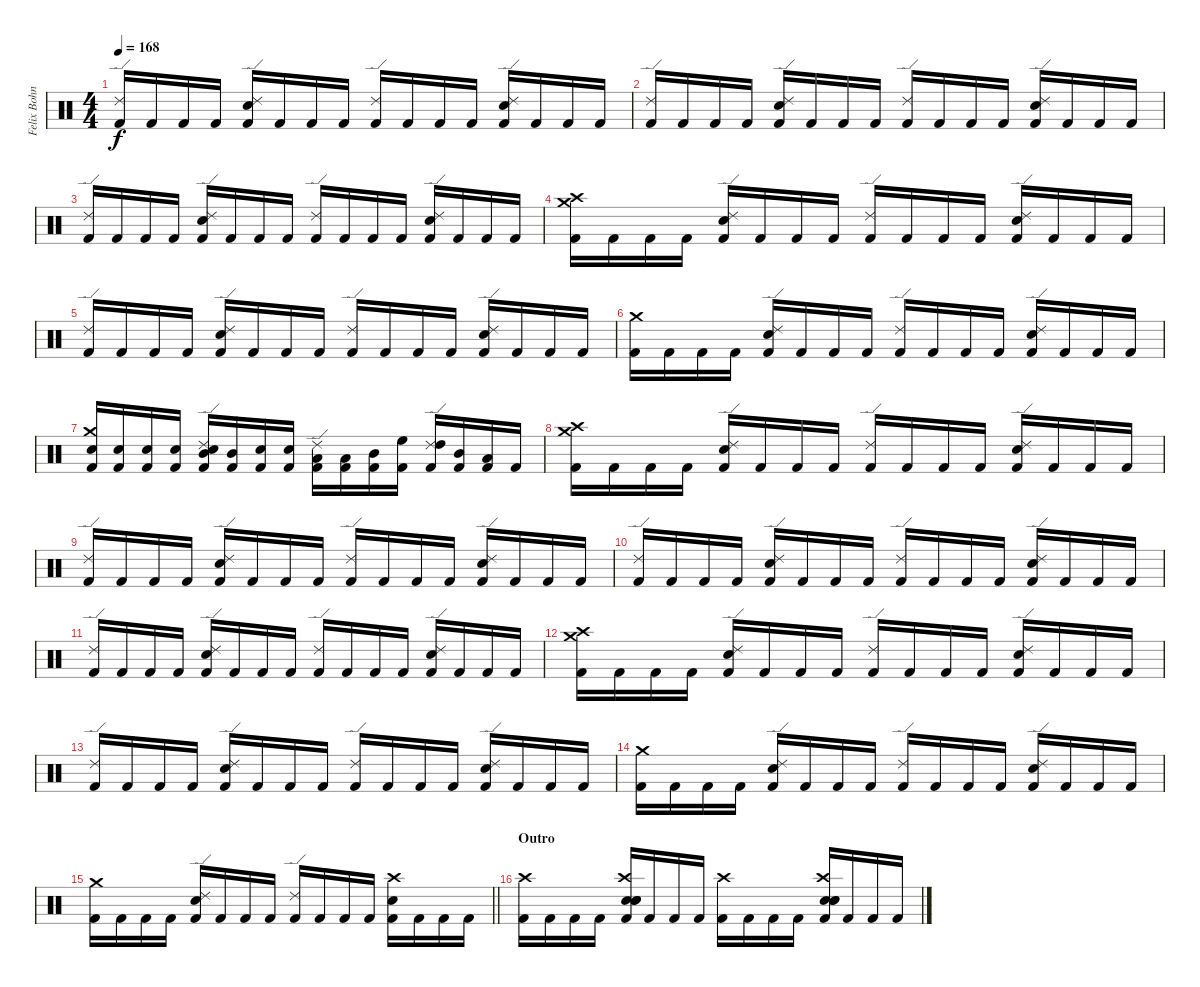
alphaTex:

\track ("Felix Bohnke" "Felix Bohn") {instrument percussion}
\staff {score}
\articulation defaults
\ts (4 4)
\tempo 168
\clef neutral
\ks c
("Ride (edge) 2" "Kick (hit) 2").16{dy f} "Kick (hit) 2".16 "Kick (hit) 2".16 "Kick (hit) 2".16 ("Ride (edge) 2" "Snare (hit) 2" "Kick (hit) 2").16 "Kick (hit) 2".16 "Kick (hit) 2".16 "Kick (hit) 2".16 ("Ride (edge) 2" "Kick (hit) 2").16 "Kick (hit) 2".16 "Kick (hit) 2".16 "Kick (hit) 2".16 ("Ride (edge) 2" "Snare (hit) 2" "Kick (hit) 2").16 "Kick (hit) 2".16 "Kick (hit) 2".16 "Kick (hit) 2".16 |
("Ride (edge) 2" "Kick (hit) 2").16 "Kick (hit) 2".16 "Kick (hit) 2".16 "Kick (hit) 2".16 ("Ride (edge) 2" "Snare (hit) 2" "Kick (hit) 2").16 "Kick (hit) 2".16 "Kick (hit) 2".16 "Kick (hit) 2".16 ("Ride (edge) 2" "Kick (hit) 2").16 "Kick (hit) 2".16 "Kick (hit) 2".16 "Kick (hit) 2".16 ("Ride (edge) 2" "Snare (hit) 2" "Kick (hit) 2").16 "Kick (hit) 2".16 "Kick (hit) 2".16 "Kick (hit) 2".16 |
("Ride (edge) 2" "Kick (hit) 2").16 "Kick (hit) 2".16 "Kick (hit) 2".16 "Kick (hit) 2".16 ("Ride (edge) 2" "Snare (hit) 2" "Kick (hit) 2").16 "Kick (hit) 2".16 "Kick (hit) 2".16 "Kick (hit) 2".16 ("Ride (edge) 2" "Kick (hit) 2").16 "Kick (hit) 2".16 "Kick (hit) 2".16 "Kick (hit) 2".16 ("Ride (edge) 2" "Snare (hit) 2" "Kick (hit) 2").16 "Kick (hit) 2".16 "Kick (hit) 2".16 "Kick (hit) 2".16 |
("Crash high (hit)" "Crash medium (hit)" "Kick (hit) 2").16 "Kick (hit) 2".16 "Kick (hit) 2".16 "Kick (hit) 2".16 ("Ride (edge) 2" "Snare (hit) 2" "Kick (hit) 2").16 "Kick (hit) 2".16 "Kick (hit) 2".16 "Kick (hit) 2".16 ("Ride (edge) 2" "Kick (hit) 2").16 "Kick (hit) 2".16 "Kick (hit) 2".16 "Kick (hit) 2".16 ("Ride (edge) 2" "Snare (hit) 2" "Kick (hit) 2").16 "Kick (hit) 2".16 "Kick (hit) 2".16 "Kick (hit) 2".16 |
("Ride (edge) 2" "Kick (hit) 2").16 "Kick (hit) 2".16 "Kick (hit) 2".16 "Kick (hit) 2".16 ("Ride (edge) 2" "Snare (hit) 2" "Kick (hit) 2").16 "Kick (hit) 2".16 "Kick (hit) 2".16 "Kick (hit) 2".16 ("Ride (edge) 2" "Kick (hit) 2").16 "Kick (hit) 2".16 "Kick (hit) 2".16 "Kick (hit) 2".16 ("Ride (edge) 2" "Snare (hit) 2" "Kick (hit) 2").16 "Kick (hit) 2".16 "Kick (hit) 2".16 "Kick (hit) 2".16 |
("Crash medium (hit)" "Kick (hit) 2").16 "Kick (hit) 2".16 "Kick (hit) 2".16 "Kick (hit) 2".16 ("Ride (edge) 2" "Snare (hit) 2" "Kick (hit) 2").16 "Kick (hit) 2".16 "Kick (hit) 2".16 "Kick (hit) 2".16 ("Ride (edge) 2" "Kick (hit) 2").16 "Kick (hit) 2".16 "Kick (hit) 2".16 "Kick (hit) 2".16 ("Ride (edge) 2" "Snare (hit) 2" "Kick (hit) 2").16 "Kick (hit) 2".16 "Kick (hit) 2".16 "Kick (hit) 2".16 |
("Crash medium (hit)" "Electric Snare (hit)" "Kick (hit) 2").16 ("Electric Snare (hit)" "Kick (hit) 2").16 ("Electric Snare (hit)" "Kick (hit) 2").16 ("Electric Snare (hit)" "Kick (hit) 2").16 ("Ride (edge) 2" "Snare (hit) 2" "Mid Tom (hit)" "Kick (hit) 2").16 ("Mid Tom (hit)" "Kick (hit) 2").16 ("Electric Snare (hit)" "Kick (hit) 2").16 ("Electric Snare (hit)" "Kick (hit) 2").16 ("Ride (edge) 2" "Low Tom (hit)" "Kick (hit) 2").16 ("Low Tom (hit)" "Kick (hit) 2").16 ("Mid Tom (hit)" "Kick (hit) 2").16 ("High Floor Tom (hit)" "Kick (hit) 2").16 ("Ride (edge) 2" "High Tom (hit)" "Kick (hit) 2").16 ("Mid Tom (hit)" "Kick (hit) 2").16 ("Low Tom (hit)" "Kick (hit) 2").16 "Kick (hit) 2".16 |
("Crash high (hit)" "Crash medium (hit)" "Kick (hit) 2").16 "Kick (hit) 2".16 "Kick (hit) 2".16 "Kick (hit) 2".16 ("Ride (edge) 2" "Snare (hit) 2" "Kick (hit) 2").16 "Kick (hit) 2".16 "Kick (hit) 2".16 "Kick (hit) 2".16 ("Ride (edge) 2" "Kick (hit) 2").16 "Kick (hit) 2".16 "Kick (hit) 2".16 "Kick (hit) 2".16 ("Ride (edge) 2" "Snare (hit) 2" "Kick (hit) 2").16 "Kick (hit) 2".16 "Kick (hit) 2".16 "Kick (hit) 2".16 |
("Ride (edge) 2" "Kick (hit) 2").16 "Kick (hit) 2".16 "Kick (hit) 2".16 "Kick (hit) 2".16 ("Ride (edge) 2" "Snare (hit) 2" "Kick (hit) 2").16 "Kick (hit) 2".16 "Kick (hit) 2".16 "Kick (hit) 2".16 ("Ride (edge) 2" "Kick (hit) 2").16 "Kick (hit) 2".16 "Kick (hit) 2".16 "Kick (hit) 2".16 ("Ride (edge) 2" "Snare (hit) 2" "Kick (hit) 2").16 "Kick (hit) 2".16 "Kick (hit) 2".16 "Kick (hit) 2".16 |
("Ride (edge) 2" "Kick (hit) 2").16 "Kick (hit) 2".16 "Kick (hit) 2".16 "Kick (hit) 2".16 ("Ride (edge) 2" "Snare (hit) 2" "Kick (hit) 2").16 "Kick (hit) 2".16 "Kick (hit) 2".16 "Kick (hit) 2".16 ("Ride (edge) 2" "Kick (hit) 2").16 "Kick (hit) 2".16 "Kick (hit) 2".16 "Kick (hit) 2".16 ("Ride (edge) 2" "Snare (hit) 2" "Kick (hit) 2").16 "Kick (hit) 2".16 "Kick (hit) 2".16 "Kick (hit) 2".16 |
("Ride (edge) 2" "Kick (hit) 2").16 "Kick (hit) 2".16 "Kick (hit) 2".16 "Kick (hit) 2".16 ("Ride (edge) 2" "Snare (hit) 2" "Kick (hit) 2").16 "Kick (hit) 2".16 "Kick (hit) 2".16 "Kick (hit) 2".16 ("Ride (edge) 2" "Kick (hit) 2").16 "Kick (hit) 2".16 "Kick (hit) 2".16 "Kick (hit) 2".16 ("Ride (edge) 2" "Snare (hit) 2" "Kick (hit) 2").16 "Kick (hit) 2".16 "Kick (hit) 2".16 "Kick (hit) 2".16 |
("Crash high (hit)" "Crash medium (hit)" "Kick (hit) 2").16 "Kick (hit) 2".16 "Kick (hit) 2".16 "Kick (hit) 2".16 ("Ride (edge) 2" "Snare (hit) 2" "Kick (hit) 2").16 "Kick (hit) 2".16 "Kick (hit) 2".16 "Kick (hit) 2".16 ("Ride (edge) 2" "Kick (hit) 2").16 "Kick (hit) 2".16 "Kick (hit) 2".16 "Kick (hit) 2".16 ("Ride (edge) 2" "Snare (hit) 2" "Kick (hit) 2").16 "Kick (hit) 2".16 "Kick (hit) 2".16 "Kick (hit) 2".16 |
("Ride (edge) 2" "Kick (hit) 2").16 "Kick (hit) 2".16 "Kick (hit) 2".16 "Kick (hit) 2".16 ("Ride (edge) 2" "Snare (hit) 2" "Kick (hit) 2").16 "Kick (hit) 2".16 "Kick (hit) 2".16 "Kick (hit) 2".16 ("Ride (edge) 2" "Kick (hit) 2").16 "Kick (hit) 2".16 "Kick (hit) 2".16 "Kick (hit) 2".16 ("Ride (edge) 2" "Snare (hit) 2" "Kick (hit) 2").16 "Kick (hit) 2".16 "Kick (hit) 2".16 "Kick (hit) 2".16 |
("Crash medium (hit)" "Kick (hit) 2").16 "Kick (hit) 2".16 "Kick (hit) 2".16 "Kick (hit) 2".16 ("Ride (edge) 2" "Snare (hit) 2" "Kick (hit) 2").16 "Kick (hit) 2".16 "Kick (hit) 2".16 "Kick (hit) 2".16 ("Ride (edge) 2" "Kick (hit) 2").16 "Kick (hit) 2".16 "Kick (hit) 2".16 "Kick (hit) 2".16 ("Ride (edge) 2" "Snare (hit) 2" "Kick (hit) 2").16 "Kick (hit) 2".16 "Kick (hit) 2".16 "Kick (hit) 2".16 |
\barLineRight lightlight
("Crash medium (hit)" "Kick (hit) 2").16 "Kick (hit) 2".16 "Kick (hit) 2".16 "Kick (hit) 2".16 ("Ride (edge) 2" "Snare (hit) 2" "Kick (hit) 2").16 "Kick (hit) 2".16 "Kick (hit) 2".16 "Kick (hit) 2".16 ("Ride (edge) 2" "Kick (hit) 2").16 "Kick (hit) 2".16 "Kick (hit) 2".16 "Kick (hit) 2".16 ("Crash high (hit)" "Snare (hit) 2" "Kick (hit) 2").16 "Kick (hit) 2".16 "Kick (hit) 2".16 "Kick (hit) 2".16 |
\section ("" "Outro")
("Crash high (hit)" "Kick (hit) 2").16 "Kick (hit) 2".16 "Kick (hit) 2".16 "Kick (hit) 2".16 ("Crash high (hit)" "Electric Snare (hit)" "Electric Snare (hit)" "Electric Snare (hit)" "Kick (hit) 2").16 "Kick (hit) 2".16 "Kick (hit) 2".16 "Kick (hit) 2".16 ("Crash high (hit)" "Kick (hit) 2").16 "Kick (hit) 2".16 "Kick (hit) 2".16 "Kick (hit) 2".16 ("Crash high (hit)" "Electric Snare (hit)" "Electric Snare (hit)" "Electric Snare (hit)" "Kick (hit) 2").16 "Kick (hit) 2".16 "Kick (hit) 2".16 "Kick (hit) 2".16
